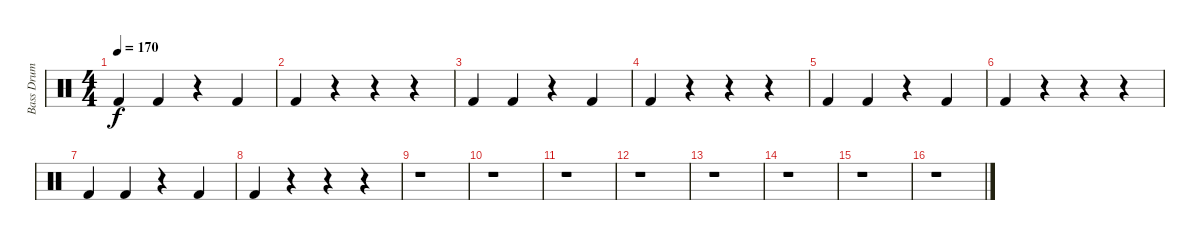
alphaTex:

\track ("Bass Drum" "Bass Drum") {instrument percussion}
\staff {score}
\articulation defaults
\ts (4 4)
\tempo 170
\clef neutral
\ks c "Kick (hit) 2".4{dy f} "Kick (hit) 2".4
r.4 "Kick (hit) 2".4 |
"Kick (hit) 2".4 r.4 r.4 r.4 |
"Kick (hit) 2".4 "Kick (hit) 2".4 r.4 "Kick (hit) 2".4 |
"Kick (hit) 2".4 r.4 r.4 r.4 |
"Kick (hit) 2".4 "Kick (hit) 2".4 r.4 "Kick (hit) 2".4 |
"Kick (hit) 2".4 r.4 r.4 r.4 |
"Kick (hit) 2".4 "Kick (hit) 2".4 r.4 "Kick (hit) 2".4 |
"Kick (hit) 2".4 r.4 r.4 r.4 |
r.1 |
r.1 |
r.1 |
r.1 |
r.1 |
r.1 |
r.1 |
r.1
